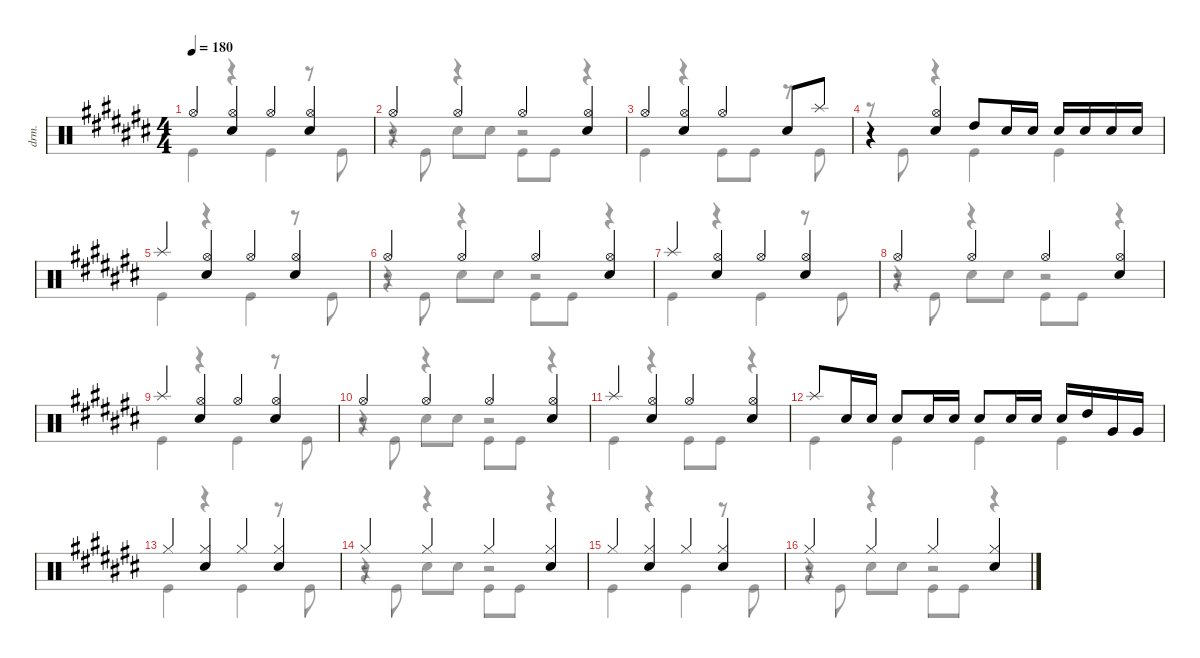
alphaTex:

\defaultSystemsLayout 4
\hideDynamics
\bracketExtendMode nobrackets
\otherSystemsTrackNameOrientation horizontal
\track ("Drumkit" "drm.") {instrument percussion}
\staff {score}
\articulation defaults
\voice
\ts (4 4)
\tempo 180
\clef neutral
\ks c# "Hi-Hat (open)".4{dy mf}
("Hi-Hat (open)" "Snare (hit) 2").4 "Hi-Hat (open)".4 ("Hi-Hat (open)" "Snare (hit) 2").4 |
"Hi-Hat (open)".4 "Hi-Hat (open)".4 "Hi-Hat (open)".4 ("Hi-Hat (open)" "Snare (hit) 2").4 |
"Hi-Hat (open)".4 ("Hi-Hat (open)" "Snare (hit) 2").4 "Hi-Hat (open)".4 "Snare (hit) 2".8 "Splash (hit)".8 |
r.4 ("Hi-Hat (open)" "Snare (hit) 2").4 "High Tom (hit)".8 "Snare (hit) 2".16 "Snare (hit) 2".16 "Snare (hit) 2".16 "Snare (hit) 2".16 "Snare (hit) 2".16 "Snare (hit) 2".16 |
"Splash (hit)".4 ("Hi-Hat (open)" "Snare (hit) 2").4 "Hi-Hat (open)".4 ("Hi-Hat (open)" "Snare (hit) 2").4 |
"Hi-Hat (open)".4 "Hi-Hat (open)".4 "Hi-Hat (open)".4 ("Hi-Hat (open)" "Snare (hit) 2").4 |
"Splash (hit)".4 ("Hi-Hat (open)" "Snare (hit) 2").4 "Hi-Hat (open)".4 ("Hi-Hat (open)" "Snare (hit) 2").4 |
"Hi-Hat (open)".4 "Hi-Hat (open)".4 "Hi-Hat (open)".4 ("Hi-Hat (open)" "Snare (hit) 2").4 |
"Splash (hit)".4 ("Hi-Hat (open)" "Snare (hit) 2").4 "Hi-Hat (open)".4 ("Hi-Hat (open)" "Snare (hit) 2").4 |
"Hi-Hat (open)".4 "Hi-Hat (open)".4 "Hi-Hat (open)".4 ("Hi-Hat (open)" "Snare (hit) 2").4 |
"Splash (hit)".4 ("Hi-Hat (open)" "Snare (hit) 2").4 "Hi-Hat (open)".4 ("Hi-Hat (open)" "Snare (hit) 2").4 |
"Splash (hit)".8 "Snare (hit) 2".16 "Snare (hit) 2".16 "Snare (hit) 2".8 "Snare (hit) 2".16 "Snare (hit) 2".16 "Snare (hit) 2".8 "Snare (hit) 2".16 "Snare (hit) 2".16 "Snare (hit) 2".16 "High Tom (hit)".16 "Very Low Tom (hit)".16 "Very Low Tom (hit)".16 |
"Hi-Hat (closed)".4 ("Hi-Hat (closed)" "Snare (hit) 2").4 "Hi-Hat (closed)".4 ("Hi-Hat (closed)" "Snare (hit) 2").4 |
"Hi-Hat (closed)".4 "Hi-Hat (closed)".4 "Hi-Hat (closed)".4 ("Hi-Hat (closed)" "Snare (hit) 2").4 |
"Hi-Hat (closed)".4 ("Hi-Hat (closed)" "Snare (hit) 2").4 "Hi-Hat (closed)".4 ("Hi-Hat (closed)" "Snare (hit) 2").4 |
"Hi-Hat (closed)".4 "Hi-Hat (closed)".4 "Hi-Hat (closed)".4 ("Hi-Hat (closed)" "Snare (hit) 2").4
\voice
\clef neutral
\ottava regular
\simile none
\ks c# "Kick (hit)".4{dy mf}
r.4 "Kick (hit)".4 r.8 "Kick (hit)".8 |
r.8 "Kick (hit)".8 r.4 "Kick (hit)".8 "Kick (hit)".8 r.4 |
"Kick (hit)".4 r.4 "Kick (hit)".8 "Kick (hit)".8 r.8 "Kick (hit)".8 |
r.8 "Kick (hit)".8 r.4 "Kick (hit)".4 "Kick (hit)".4 |
"Kick (hit)".4 r.4 "Kick (hit)".4 r.8 "Kick (hit)".8 |
r.8 "Kick (hit)".8 r.4 "Kick (hit)".8 "Kick (hit)".8 r.4 |
"Kick (hit)".4 r.4 "Kick (hit)".4 r.8 "Kick (hit)".8 |
r.8 "Kick (hit)".8 r.4 "Kick (hit)".8 "Kick (hit)".8 r.4 |
"Kick (hit)".4 r.4 "Kick (hit)".4 r.8 "Kick (hit)".8 |
r.8 "Kick (hit)".8 r.4 "Kick (hit)".8 "Kick (hit)".8 r.4 |
"Kick (hit)".4 r.4 "Kick (hit)".8 "Kick (hit)".8 r.4 |
"Kick (hit)".4 "Kick (hit)".4 "Kick (hit)".4 "Kick (hit)".4 |
"Kick (hit)".4 r.4 "Kick (hit)".4 r.8 "Kick (hit)".8 |
r.8 "Kick (hit)".8 r.4 "Kick (hit)".8 "Kick (hit)".8 r.4 |
"Kick (hit)".4 r.4 "Kick (hit)".4 r.8 "Kick (hit)".8 |
r.8 "Kick (hit)".8 r.4 "Kick (hit)".8 "Kick (hit)".8 r.4
\voice
\clef neutral
\ottava regular
\simile none
\ks c#
|
r.4 "Snare (hit) 2".8 "Snare (hit) 2".8 r.2 |
|
|
|
r.4 "Snare (hit) 2".8 "Snare (hit) 2".8 r.2 |
|
r.4 "Snare (hit) 2".8 "Snare (hit) 2".8 r.2 |
|
r.4 "Snare (hit) 2".8 "Snare (hit) 2".8 r.2 |
|
|
|
r.4 "Snare (hit) 2".8 "Snare (hit) 2".8 r.2 |
|
r.4 "Snare (hit) 2".8 "Snare (hit) 2".8 r.2
